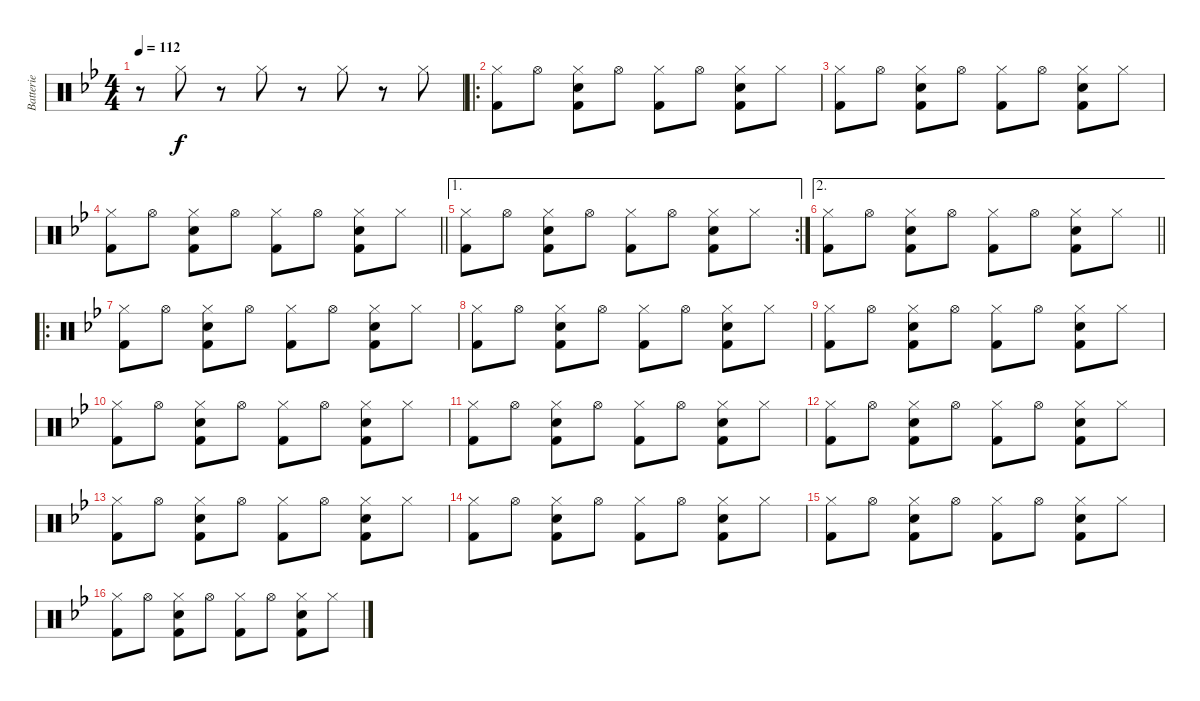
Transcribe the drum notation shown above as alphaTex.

\track ("Batterie" "Batterie") {instrument percussion}
\staff {score}
\articulation defaults
\ts (4 4)
\tempo 112
\clef neutral
\ks bb
r.8{dy f} "Hi-Hat (closed)".8 r.8 "Hi-Hat (closed)".8 r.8 "Hi-Hat (closed)".8 r.8 "Hi-Hat (closed)".8 |
\ro
("Hi-Hat (closed)" "Kick (hit) 2").8 "Hi-Hat (open)".8 ("Hi-Hat (closed)" "Snare (hit) 2" "Kick (hit) 2").8 "Hi-Hat (open)".8 ("Hi-Hat (closed)" "Kick (hit) 2").8 "Hi-Hat (open)".8 ("Hi-Hat (closed)" "Snare (hit) 2" "Kick (hit) 2").8 "Hi-Hat (closed)".8 |
("Hi-Hat (closed)" "Kick (hit) 2").8 "Hi-Hat (open)".8 ("Hi-Hat (closed)" "Snare (hit) 2" "Kick (hit) 2").8 "Hi-Hat (open)".8 ("Hi-Hat (closed)" "Kick (hit) 2").8 "Hi-Hat (open)".8 ("Hi-Hat (closed)" "Snare (hit) 2" "Kick (hit) 2").8 "Hi-Hat (closed)".8 |
\barLineRight lightlight
("Hi-Hat (closed)" "Kick (hit) 2").8 "Hi-Hat (open)".8 ("Hi-Hat (closed)" "Snare (hit) 2" "Kick (hit) 2").8 "Hi-Hat (open)".8 ("Hi-Hat (closed)" "Kick (hit) 2").8 "Hi-Hat (open)".8 ("Hi-Hat (closed)" "Snare (hit) 2" "Kick (hit) 2").8 "Hi-Hat (closed)".8 |
\ae 1
\rc 2
("Hi-Hat (closed)" "Kick (hit) 2").8 "Hi-Hat (open)".8 ("Hi-Hat (closed)" "Snare (hit) 2" "Kick (hit) 2").8 "Hi-Hat (open)".8 ("Hi-Hat (closed)" "Kick (hit) 2").8 "Hi-Hat (open)".8 ("Hi-Hat (closed)" "Snare (hit) 2" "Kick (hit) 2").8 "Hi-Hat (closed)".8 |
\ae 2
\barLineRight lightlight
("Hi-Hat (closed)" "Kick (hit) 2").8 "Hi-Hat (open)".8 ("Hi-Hat (closed)" "Snare (hit) 2" "Kick (hit) 2").8 "Hi-Hat (open)".8 ("Hi-Hat (closed)" "Kick (hit) 2").8 "Hi-Hat (open)".8 ("Hi-Hat (closed)" "Snare (hit) 2" "Kick (hit) 2").8 "Hi-Hat (closed)".8 |
\ro
("Hi-Hat (closed)" "Kick (hit) 2").8 "Hi-Hat (open)".8 ("Hi-Hat (closed)" "Snare (hit) 2" "Kick (hit) 2").8 "Hi-Hat (open)".8 ("Hi-Hat (closed)" "Kick (hit) 2").8 "Hi-Hat (open)".8 ("Hi-Hat (closed)" "Snare (hit) 2" "Kick (hit) 2").8 "Hi-Hat (closed)".8 |
("Hi-Hat (closed)" "Kick (hit) 2").8 "Hi-Hat (open)".8 ("Hi-Hat (closed)" "Snare (hit) 2" "Kick (hit) 2").8 "Hi-Hat (open)".8 ("Hi-Hat (closed)" "Kick (hit) 2").8 "Hi-Hat (open)".8 ("Hi-Hat (closed)" "Snare (hit) 2" "Kick (hit) 2").8 "Hi-Hat (closed)".8 |
("Hi-Hat (closed)" "Kick (hit) 2").8 "Hi-Hat (open)".8 ("Hi-Hat (closed)" "Snare (hit) 2" "Kick (hit) 2").8 "Hi-Hat (open)".8 ("Hi-Hat (closed)" "Kick (hit) 2").8 "Hi-Hat (open)".8 ("Hi-Hat (closed)" "Snare (hit) 2" "Kick (hit) 2").8 "Hi-Hat (closed)".8 |
("Hi-Hat (closed)" "Kick (hit) 2").8 "Hi-Hat (open)".8 ("Hi-Hat (closed)" "Snare (hit) 2" "Kick (hit) 2").8 "Hi-Hat (open)".8 ("Hi-Hat (closed)" "Kick (hit) 2").8 "Hi-Hat (open)".8 ("Hi-Hat (closed)" "Snare (hit) 2" "Kick (hit) 2").8 "Hi-Hat (closed)".8 |
("Hi-Hat (closed)" "Kick (hit) 2").8 "Hi-Hat (open)".8 ("Hi-Hat (closed)" "Snare (hit) 2" "Kick (hit) 2").8 "Hi-Hat (open)".8 ("Hi-Hat (closed)" "Kick (hit) 2").8 "Hi-Hat (open)".8 ("Hi-Hat (closed)" "Snare (hit) 2" "Kick (hit) 2").8 "Hi-Hat (closed)".8 |
("Hi-Hat (closed)" "Kick (hit) 2").8 "Hi-Hat (open)".8 ("Hi-Hat (closed)" "Snare (hit) 2" "Kick (hit) 2").8 "Hi-Hat (open)".8 ("Hi-Hat (closed)" "Kick (hit) 2").8 "Hi-Hat (open)".8 ("Hi-Hat (closed)" "Snare (hit) 2" "Kick (hit) 2").8 "Hi-Hat (closed)".8 |
("Hi-Hat (closed)" "Kick (hit) 2").8 "Hi-Hat (open)".8 ("Hi-Hat (closed)" "Snare (hit) 2" "Kick (hit) 2").8 "Hi-Hat (open)".8 ("Hi-Hat (closed)" "Kick (hit) 2").8 "Hi-Hat (open)".8 ("Hi-Hat (closed)" "Snare (hit) 2" "Kick (hit) 2").8 "Hi-Hat (closed)".8 |
("Hi-Hat (closed)" "Kick (hit) 2").8 "Hi-Hat (open)".8 ("Hi-Hat (closed)" "Snare (hit) 2" "Kick (hit) 2").8 "Hi-Hat (open)".8 ("Hi-Hat (closed)" "Kick (hit) 2").8 "Hi-Hat (open)".8 ("Hi-Hat (closed)" "Snare (hit) 2" "Kick (hit) 2").8 "Hi-Hat (closed)".8 |
("Hi-Hat (closed)" "Kick (hit) 2").8 "Hi-Hat (open)".8 ("Hi-Hat (closed)" "Snare (hit) 2" "Kick (hit) 2").8 "Hi-Hat (open)".8 ("Hi-Hat (closed)" "Kick (hit) 2").8 "Hi-Hat (open)".8 ("Hi-Hat (closed)" "Snare (hit) 2" "Kick (hit) 2").8 "Hi-Hat (closed)".8 |
("Hi-Hat (closed)" "Kick (hit) 2").8 "Hi-Hat (open)".8 ("Hi-Hat (closed)" "Snare (hit) 2" "Kick (hit) 2").8 "Hi-Hat (open)".8 ("Hi-Hat (closed)" "Kick (hit) 2").8 "Hi-Hat (open)".8 ("Hi-Hat (closed)" "Snare (hit) 2" "Kick (hit) 2").8 "Hi-Hat (closed)".8
